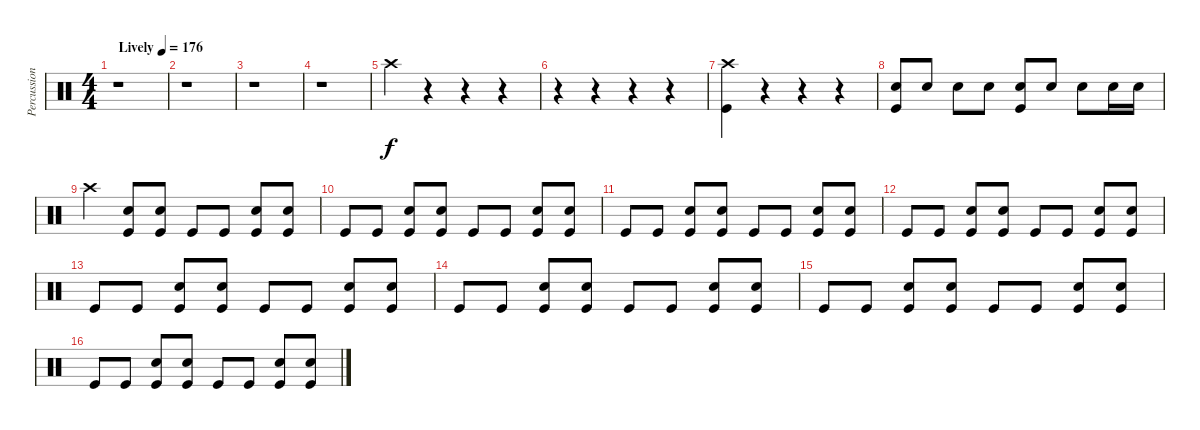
\track ("Percussion" "Percussion") {instrument percussion}
\staff {score}
\articulation defaults
\ts (4 4)
\tempo (176 "Lively")
\clef neutral
\ks c
r.1{dy f} |
r.1 |
r.1 |
r.1 |
"Crash high (hit)".4 r.4 r.4 r.4 |
r.4 r.4 r.4 r.4 |
("Kick (hit)" "Crash high (hit)").4 r.4 r.4 r.4 |
("Snare (hit) 2" "Kick (hit)").8 "Snare (hit) 2".8 "Snare (hit) 2".8 "Snare (hit) 2".8 ("Snare (hit) 2" "Kick (hit)").8 "Snare (hit) 2".8 "Snare (hit) 2".8 "Snare (hit) 2".16 "Snare (hit) 2".16 |
"Crash high (hit)".4 ("Kick (hit)" "Snare (hit) 2").8 ("Kick (hit)" "Snare (hit) 2").8 "Kick (hit)".8 "Kick (hit)".8 ("Kick (hit)" "Snare (hit) 2").8 ("Kick (hit)" "Snare (hit) 2").8 |
"Kick (hit)".8 "Kick (hit)".8 ("Kick (hit)" "Snare (hit) 2").8 ("Kick (hit)" "Snare (hit) 2").8 "Kick (hit)".8 "Kick (hit)".8 ("Kick (hit)" "Snare (hit) 2").8 ("Kick (hit)" "Snare (hit) 2").8 |
"Kick (hit)".8 "Kick (hit)".8 ("Kick (hit)" "Snare (hit) 2").8 ("Kick (hit)" "Snare (hit) 2").8 "Kick (hit)".8 "Kick (hit)".8 ("Kick (hit)" "Snare (hit) 2").8 ("Kick (hit)" "Snare (hit) 2").8 |
"Kick (hit)".8 "Kick (hit)".8 ("Kick (hit)" "Snare (hit) 2").8 ("Kick (hit)" "Snare (hit) 2").8 "Kick (hit)".8 "Kick (hit)".8 ("Kick (hit)" "Snare (hit) 2").8 ("Kick (hit)" "Snare (hit) 2").8 |
"Kick (hit)".8 "Kick (hit)".8 ("Kick (hit)" "Snare (hit) 2").8 ("Kick (hit)" "Snare (hit) 2").8 "Kick (hit)".8 "Kick (hit)".8 ("Kick (hit)" "Snare (hit) 2").8 ("Kick (hit)" "Snare (hit) 2").8 |
"Kick (hit)".8 "Kick (hit)".8 ("Kick (hit)" "Snare (hit) 2").8 ("Kick (hit)" "Snare (hit) 2").8 "Kick (hit)".8 "Kick (hit)".8 ("Kick (hit)" "Snare (hit) 2").8 ("Kick (hit)" "Snare (hit) 2").8 |
"Kick (hit)".8 "Kick (hit)".8 ("Kick (hit)" "Snare (hit) 2").8 ("Kick (hit)" "Snare (hit) 2").8 "Kick (hit)".8 "Kick (hit)".8 ("Kick (hit)" "Snare (hit) 2").8 ("Kick (hit)" "Snare (hit) 2").8 |
"Kick (hit)".8 "Kick (hit)".8 ("Kick (hit)" "Snare (hit) 2").8 ("Kick (hit)" "Snare (hit) 2").8 "Kick (hit)".8 "Kick (hit)".8 ("Kick (hit)" "Snare (hit) 2").8 ("Kick (hit)" "Snare (hit) 2").8
